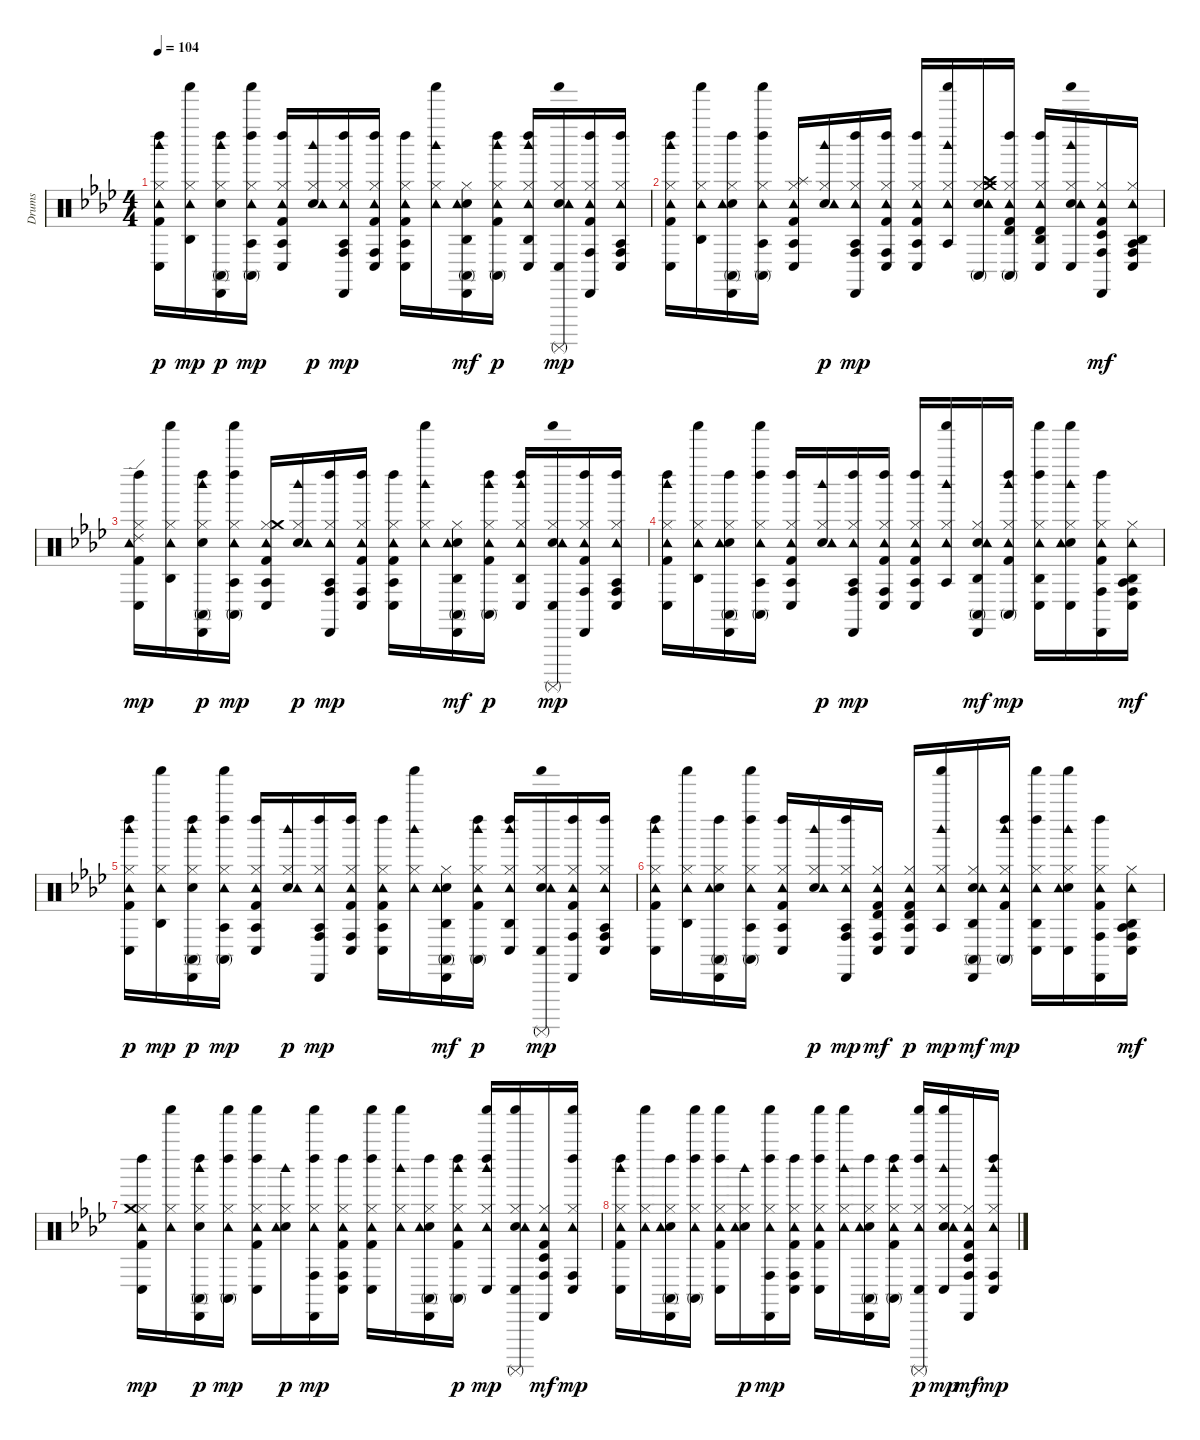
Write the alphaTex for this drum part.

\track ("Drums" "Drums") {instrument percussion}
\staff {score}
\articulation defaults
\ts (4 4)
\tempo 104
\clef neutral
\ks ab
("Kick (hit) 2" "Hi-Hat (closed)" "Tambourine (hit)" "Conga low (hit)" "Left Maraca (hit)" "Woodblock high (hit)").16{dy p} ("Hi-Hat (closed)" "Tambourine (hit)" "Agogo high (hit)" "Shaker (hit)").16{dy mp} ("Hand Clap (hit)" "Hi-Hat (closed)" "Conga high (mute)" "Cabasa (hit)" "Left Maraca (hit)" "Woodblock high (hit)").16{dy p} ("Hi-Hat (closed)" "Tambourine (hit)" "Conga high (mute)" "Agogo tow (hit)" "Left Maraca (hit)" "Shaker (hit)").16{dy mp} ("Kick (hit) 2" "Hi-Hat (closed)" "Tambourine (hit)" "Conga low (hit)" "Agogo tow (hit)" "Left Maraca (hit)").16 ("Hand Clap (hit)" "Hi-Hat (closed)" "Tambourine (hit)" "Woodblock high (hit)").16{dy p} ("Hi-Hat (closed)" "Tambourine (hit)" "Conga high (hit)" "Agogo tow (hit)" "Cabasa (hit)" "Left Maraca (hit)").16{dy mp} ("Kick (hit) 2" "Hi-Hat (closed)" "Tambourine (hit)" "Conga high (hit)" "Conga low (hit)" "Left Maraca (hit)").16 ("Kick (hit) 2" "Hi-Hat (closed)" "Tambourine (hit)" "Conga low (hit)" "Agogo tow (hit)" "Left Maraca (hit)").16 ("Hi-Hat (closed)" "Tambourine (hit)" "Woodblock high (hit)" "Shaker (hit)").16 ("Hand Clap (hit)" "Hi-Hat (closed)" "Tambourine (hit)" "Conga high (mute)" "Agogo high (hit)" "Cabasa (hit)").16{dy mf} ("Kick (hit) 2" "Hi-Hat (closed)" "Tambourine (hit)" "Conga high (mute)" "Left Maraca (hit)" "Woodblock high (hit)").16{dy p} ("Hi-Hat (closed)" "Tambourine (hit)" "Conga low (hit)" "Agogo high (hit)" "Left Maraca (hit)" "Woodblock high (hit)").16 ("Hand Clap (hit)" "Hi-Hat (closed)" "Tambourine (hit)" "Conga low (hit)" "Shaker (hit)" "Surdo (mute)").16{dy mp} ("Kick (hit) 2" "Hi-Hat (closed)" "Tambourine (hit)" "Conga high (hit)" "Cabasa (hit)" "Left Maraca (hit)").16 ("Hi-Hat (closed)" "Tambourine (hit)" "Conga high (hit)" "Conga low (hit)" "Agogo tow (hit)" "Left Maraca (hit)").16 |
("Kick (hit) 2" "Hi-Hat (closed)" "Tambourine (hit)" "Conga low (hit)" "Left Maraca (hit)" "Woodblock high (hit)").16 ("Hi-Hat (closed)" "Tambourine (hit)" "Agogo high (hit)" "Shaker (hit)").16 ("Hand Clap (hit)" "Hi-Hat (closed)" "Tambourine (hit)" "Conga high (mute)" "Cabasa (hit)" "Left Maraca (hit)").16 ("Hi-Hat (closed)" "Tambourine (hit)" "Conga high (mute)" "Agogo tow (hit)" "Left Maraca (hit)" "Shaker (hit)").16 ("Kick (hit) 2" "Hi-Hat (closed)" "Tambourine (hit)" "Splash (hit)" "Conga low (hit)" "Agogo tow (hit)").16 ("Hand Clap (hit)" "Hi-Hat (closed)" "Tambourine (hit)" "Woodblock high (hit)").16{dy p} ("Hi-Hat (closed)" "Tambourine (hit)" "Conga high (hit)" "Agogo tow (hit)" "Cabasa (hit)" "Left Maraca (hit)").16{dy mp} ("Kick (hit) 2" "Hi-Hat (closed)" "Tambourine (hit)" "Conga high (hit)" "Conga low (hit)" "Left Maraca (hit)").16 ("Kick (hit) 2" "Hi-Hat (closed)" "Tambourine (hit)" "Conga low (hit)" "Agogo tow (hit)" "Left Maraca (hit)").16 ("Hi-Hat (closed)" "Tambourine (hit)" "Agogo tow (hit)" "Woodblock high (hit)" "Shaker (hit)").16 ("Hand Clap (hit)" "Hi-Hat (closed)" "Crash high (hit)" "Tambourine (hit)" "Crash medium (hit)" "Conga high (mute)").16 ("Kick (hit) 2" "Hi-Hat (closed)" "Tambourine (hit)" "Conga high (mute)" "Timbale high (hit)" "Left Maraca (hit)").16 ("Hi-Hat (closed)" "Tambourine (hit)" "Conga low (hit)" "Timbale high (hit)" "Agogo high (hit)" "Left Maraca (hit)").16 ("Hand Clap (hit)" "Hi-Hat (closed)" "Tambourine (hit)" "Conga low (hit)" "Woodblock high (hit)" "Shaker (hit)").16 ("Kick (hit) 2" "Hi-Hat (closed)" "Tambourine (hit)" "Conga high (hit)" "Timbale low (hit)" "Cabasa (hit)").16{dy mf} ("Hi-Hat (closed)" "Tambourine (hit)" "Conga high (hit)" "Conga low (hit)" "Agogo high (hit)" "Agogo tow (hit)").16 |
("Kick (hit) 2" "Hi-Hat (closed)" "Tambourine (hit)" "Ride (edge) 2" "Conga low (hit)" "Left Maraca (hit)").16{dy mp} ("Hi-Hat (closed)" "Tambourine (hit)" "Agogo high (hit)" "Shaker (hit)").16 ("Hand Clap (hit)" "Hi-Hat (closed)" "Conga high (mute)" "Cabasa (hit)" "Left Maraca (hit)" "Woodblock high (hit)").16{dy p} ("Hi-Hat (closed)" "Tambourine (hit)" "Conga high (mute)" "Agogo tow (hit)" "Left Maraca (hit)" "Shaker (hit)").16{dy mp} ("Kick (hit) 2" "Hi-Hat (closed)" "Tambourine (hit)" "Crash medium (hit)" "Conga low (hit)" "Agogo tow (hit)").16 ("Hand Clap (hit)" "Hi-Hat (closed)" "Tambourine (hit)" "Woodblock high (hit)").16{dy p} ("Hi-Hat (closed)" "Tambourine (hit)" "Conga high (hit)" "Agogo tow (hit)" "Cabasa (hit)" "Left Maraca (hit)").16{dy mp} ("Kick (hit) 2" "Hi-Hat (closed)" "Tambourine (hit)" "Conga high (hit)" "Conga low (hit)" "Left Maraca (hit)").16 ("Kick (hit) 2" "Hi-Hat (closed)" "Tambourine (hit)" "Conga low (hit)" "Agogo tow (hit)" "Left Maraca (hit)").16 ("Hi-Hat (closed)" "Tambourine (hit)" "Woodblock high (hit)" "Shaker (hit)").16 ("Hand Clap (hit)" "Hi-Hat (closed)" "Tambourine (hit)" "Conga high (mute)" "Agogo high (hit)" "Cabasa (hit)").16{dy mf} ("Kick (hit) 2" "Hi-Hat (closed)" "Tambourine (hit)" "Conga high (mute)" "Left Maraca (hit)" "Woodblock high (hit)").16{dy p} ("Hi-Hat (closed)" "Tambourine (hit)" "Conga low (hit)" "Agogo high (hit)" "Left Maraca (hit)" "Woodblock high (hit)").16 ("Hand Clap (hit)" "Hi-Hat (closed)" "Tambourine (hit)" "Conga low (hit)" "Shaker (hit)" "Surdo (mute)").16{dy mp} ("Kick (hit) 2" "Hi-Hat (closed)" "Tambourine (hit)" "Conga high (hit)" "Cabasa (hit)" "Left Maraca (hit)").16 ("Hi-Hat (closed)" "Tambourine (hit)" "Conga high (hit)" "Conga low (hit)" "Agogo tow (hit)" "Left Maraca (hit)").16 |
("Kick (hit) 2" "Hi-Hat (closed)" "Tambourine (hit)" "Conga low (hit)" "Left Maraca (hit)" "Woodblock high (hit)").16 ("Hi-Hat (closed)" "Tambourine (hit)" "Agogo high (hit)" "Shaker (hit)").16 ("Hand Clap (hit)" "Hi-Hat (closed)" "Tambourine (hit)" "Conga high (mute)" "Cabasa (hit)" "Left Maraca (hit)").16 ("Hi-Hat (closed)" "Tambourine (hit)" "Conga high (mute)" "Agogo tow (hit)" "Left Maraca (hit)" "Shaker (hit)").16 ("Kick (hit) 2" "Hi-Hat (closed)" "Tambourine (hit)" "Conga low (hit)" "Agogo tow (hit)" "Left Maraca (hit)").16 ("Hand Clap (hit)" "Hi-Hat (closed)" "Tambourine (hit)" "Woodblock high (hit)").16{dy p} ("Hi-Hat (closed)" "Tambourine (hit)" "Conga high (hit)" "Agogo tow (hit)" "Cabasa (hit)" "Left Maraca (hit)").16{dy mp} ("Kick (hit) 2" "Hi-Hat (closed)" "Tambourine (hit)" "Conga high (hit)" "Conga low (hit)" "Left Maraca (hit)").16 ("Kick (hit) 2" "Hi-Hat (closed)" "Tambourine (hit)" "Conga low (hit)" "Agogo tow (hit)" "Left Maraca (hit)").16 ("Hi-Hat (closed)" "Tambourine (hit)" "Agogo tow (hit)" "Woodblock high (hit)" "Shaker (hit)").16 ("Hand Clap (hit)" "Hi-Hat (closed)" "Tambourine (hit)" "Conga high (mute)" "Agogo high (hit)" "Cabasa (hit)").16{dy mf} ("Kick (hit) 2" "Hi-Hat (closed)" "Tambourine (hit)" "Conga high (mute)" "Left Maraca (hit)" "Woodblock high (hit)").16{dy mp} ("Hi-Hat (closed)" "Tambourine (hit)" "Conga low (hit)" "Agogo high (hit)" "Left Maraca (hit)" "Shaker (hit)").16 ("Hand Clap (hit)" "Hi-Hat (closed)" "Tambourine (hit)" "Conga low (hit)" "Woodblock high (hit)" "Shaker (hit)").16 ("Kick (hit) 2" "Hi-Hat (closed)" "Tambourine (hit)" "Conga high (hit)" "Cabasa (hit)" "Left Maraca (hit)").16 ("Hi-Hat (closed)" "Tambourine (hit)" "Conga high (hit)" "Conga low (hit)" "Agogo high (hit)" "Agogo tow (hit)").16{dy mf} |
("Kick (hit) 2" "Hi-Hat (closed)" "Tambourine (hit)" "Conga low (hit)" "Left Maraca (hit)" "Woodblock high (hit)").16{dy p} ("Hi-Hat (closed)" "Tambourine (hit)" "Agogo high (hit)" "Shaker (hit)").16{dy mp} ("Hand Clap (hit)" "Hi-Hat (closed)" "Conga high (mute)" "Cabasa (hit)" "Left Maraca (hit)" "Woodblock high (hit)").16{dy p} ("Hi-Hat (closed)" "Tambourine (hit)" "Conga high (mute)" "Agogo tow (hit)" "Left Maraca (hit)" "Shaker (hit)").16{dy mp} ("Kick (hit) 2" "Hi-Hat (closed)" "Tambourine (hit)" "Conga low (hit)" "Agogo tow (hit)" "Left Maraca (hit)").16 ("Hand Clap (hit)" "Hi-Hat (closed)" "Tambourine (hit)" "Woodblock high (hit)").16{dy p} ("Hi-Hat (closed)" "Tambourine (hit)" "Conga high (hit)" "Agogo tow (hit)" "Cabasa (hit)" "Left Maraca (hit)").16{dy mp} ("Kick (hit) 2" "Hi-Hat (closed)" "Tambourine (hit)" "Conga high (hit)" "Conga low (hit)" "Left Maraca (hit)").16 ("Kick (hit) 2" "Hi-Hat (closed)" "Tambourine (hit)" "Conga low (hit)" "Agogo tow (hit)" "Left Maraca (hit)").16 ("Hi-Hat (closed)" "Tambourine (hit)" "Woodblock high (hit)" "Shaker (hit)").16 ("Hand Clap (hit)" "Hi-Hat (closed)" "Tambourine (hit)" "Conga high (mute)" "Agogo high (hit)" "Cabasa (hit)").16{dy mf} ("Kick (hit) 2" "Hi-Hat (closed)" "Tambourine (hit)" "Conga high (mute)" "Left Maraca (hit)" "Woodblock high (hit)").16{dy p} ("Hi-Hat (closed)" "Tambourine (hit)" "Conga low (hit)" "Agogo high (hit)" "Left Maraca (hit)" "Woodblock high (hit)").16 ("Hand Clap (hit)" "Hi-Hat (closed)" "Tambourine (hit)" "Conga low (hit)" "Shaker (hit)" "Surdo (mute)").16{dy mp} ("Kick (hit) 2" "Hi-Hat (closed)" "Tambourine (hit)" "Conga high (hit)" "Cabasa (hit)" "Left Maraca (hit)").16 ("Hi-Hat (closed)" "Tambourine (hit)" "Conga high (hit)" "Conga low (hit)" "Agogo tow (hit)" "Left Maraca (hit)").16 |
("Kick (hit) 2" "Hi-Hat (closed)" "Tambourine (hit)" "Conga low (hit)" "Left Maraca (hit)" "Woodblock high (hit)").16 ("Hi-Hat (closed)" "Tambourine (hit)" "Agogo high (hit)" "Shaker (hit)").16 ("Hand Clap (hit)" "Hi-Hat (closed)" "Tambourine (hit)" "Conga high (mute)" "Cabasa (hit)" "Left Maraca (hit)").16 ("Hi-Hat (closed)" "Tambourine (hit)" "Conga high (mute)" "Agogo tow (hit)" "Left Maraca (hit)" "Shaker (hit)").16 ("Kick (hit) 2" "Hi-Hat (closed)" "Tambourine (hit)" "Conga low (hit)" "Agogo tow (hit)" "Left Maraca (hit)").16 ("Hand Clap (hit)" "Hi-Hat (closed)" "Tambourine (hit)" "Woodblock high (hit)").16{dy p} ("Hi-Hat (closed)" "Tambourine (hit)" "Conga high (hit)" "Agogo tow (hit)" "Cabasa (hit)" "Left Maraca (hit)").16{dy mp} ("Kick (hit) 2" "Hi-Hat (closed)" "Tambourine (hit)" "Conga high (hit)" "Conga low (hit)" "Timbale high (hit)").16{dy mf} ("Kick (hit) 2" "Hi-Hat (closed)" "Tambourine (hit)" "Conga low (hit)" "Timbale high (hit)" "Agogo tow (hit)").16{dy p} ("Hi-Hat (closed)" "Tambourine (hit)" "Agogo tow (hit)" "Woodblock high (hit)" "Shaker (hit)").16{dy mp} ("Hand Clap (hit)" "Hi-Hat (closed)" "Tambourine (hit)" "Conga high (mute)" "Agogo high (hit)" "Cabasa (hit)").16{dy mf} ("Kick (hit) 2" "Hi-Hat (closed)" "Tambourine (hit)" "Conga high (mute)" "Left Maraca (hit)" "Woodblock high (hit)").16{dy mp} ("Hi-Hat (closed)" "Tambourine (hit)" "Conga low (hit)" "Agogo high (hit)" "Left Maraca (hit)" "Shaker (hit)").16 ("Hand Clap (hit)" "Hi-Hat (closed)" "Tambourine (hit)" "Conga low (hit)" "Woodblock high (hit)" "Shaker (hit)").16 ("Kick (hit) 2" "Hi-Hat (closed)" "Tambourine (hit)" "Conga high (hit)" "Cabasa (hit)" "Left Maraca (hit)").16 ("Hi-Hat (closed)" "Tambourine (hit)" "Conga high (hit)" "Conga low (hit)" "Agogo high (hit)" "Agogo tow (hit)").16{dy mf} |
("Kick (hit) 2" "Hi-Hat (closed)" "Tambourine (hit)" "Crash medium (hit)" "Conga low (hit)" "Left Maraca (hit)").16{dy mp} ("Hi-Hat (closed)" "Tambourine (hit)" "Shaker (hit)").16 ("Hand Clap (hit)" "Hi-Hat (closed)" "Conga high (mute)" "Cabasa (hit)" "Left Maraca (hit)" "Woodblock high (hit)").16{dy p} ("Hi-Hat (closed)" "Tambourine (hit)" "Conga high (mute)" "Left Maraca (hit)" "Shaker (hit)").16{dy mp} ("Kick (hit) 2" "Hi-Hat (closed)" "Tambourine (hit)" "Conga low (hit)" "Left Maraca (hit)" "Shaker (hit)").16 ("Hand Clap (hit)" "Hi-Hat (closed)" "Tambourine (hit)" "Woodblock high (hit)").16{dy p} ("Hi-Hat (closed)" "Tambourine (hit)" "Conga high (hit)" "Cabasa (hit)" "Left Maraca (hit)" "Shaker (hit)").16{dy mp} ("Kick (hit) 2" "Hi-Hat (closed)" "Tambourine (hit)" "Conga high (hit)" "Conga low (hit)" "Left Maraca (hit)").16 ("Kick (hit) 2" "Hi-Hat (closed)" "Tambourine (hit)" "Conga low (hit)" "Left Maraca (hit)" "Shaker (hit)").16 ("Hi-Hat (closed)" "Tambourine (hit)" "Woodblock high (hit)" "Shaker (hit)").16 ("Hand Clap (hit)" "Hi-Hat (closed)" "Tambourine (hit)" "Conga high (mute)" "Cabasa (hit)" "Left Maraca (hit)").16 ("Kick (hit) 2" "Hi-Hat (closed)" "Tambourine (hit)" "Conga high (mute)" "Left Maraca (hit)" "Woodblock high (hit)").16{dy p} ("Hi-Hat (closed)" "Tambourine (hit)" "Conga low (hit)" "Left Maraca (hit)" "Woodblock high (hit)" "Shaker (hit)").16{dy mp} ("Hand Clap (hit)" "Hi-Hat (closed)" "Tambourine (hit)" "Conga low (hit)" "Shaker (hit)" "Surdo (mute)").16 ("Kick (hit) 2" "Hi-Hat (closed)" "Tambourine (hit)" "Conga high (hit)" "Timbale low (hit)" "Cabasa (hit)").16{dy mf} ("Hi-Hat (closed)" "Tambourine (hit)" "Conga high (hit)" "Conga low (hit)" "Left Maraca (hit)" "Shaker (hit)").16{dy mp} |
("Kick (hit) 2" "Hi-Hat (closed)" "Tambourine (hit)" "Conga low (hit)" "Left Maraca (hit)" "Woodblock high (hit)").16 ("Hi-Hat (closed)" "Tambourine (hit)" "Shaker (hit)").16 ("Hand Clap (hit)" "Hi-Hat (closed)" "Tambourine (hit)" "Conga high (mute)" "Cabasa (hit)" "Left Maraca (hit)").16 ("Hi-Hat (closed)" "Tambourine (hit)" "Conga high (mute)" "Left Maraca (hit)" "Shaker (hit)").16 ("Kick (hit) 2" "Hi-Hat (closed)" "Tambourine (hit)" "Conga low (hit)" "Left Maraca (hit)" "Shaker (hit)").16 ("Hand Clap (hit)" "Hi-Hat (closed)" "Tambourine (hit)" "Woodblock high (hit)").16{dy p} ("Hi-Hat (closed)" "Tambourine (hit)" "Conga high (hit)" "Cabasa (hit)" "Left Maraca (hit)" "Shaker (hit)").16{dy mp} ("Kick (hit) 2" "Hi-Hat (closed)" "Tambourine (hit)" "Conga high (hit)" "Conga low (hit)" "Left Maraca (hit)").16 ("Kick (hit) 2" "Hi-Hat (closed)" "Tambourine (hit)" "Conga low (hit)" "Left Maraca (hit)" "Shaker (hit)").16 ("Hi-Hat (closed)" "Tambourine (hit)" "Woodblock high (hit)" "Shaker (hit)").16 ("Hand Clap (hit)" "Hi-Hat (closed)" "Tambourine (hit)" "Conga high (mute)" "Cabasa (hit)" "Left Maraca (hit)").16 ("Kick (hit) 2" "Hi-Hat (closed)" "Tambourine (hit)" "Conga high (mute)" "Left Maraca (hit)" "Woodblock high (hit)").16 ("Hi-Hat (closed)" "Tambourine (hit)" "Conga low (hit)" "Left Maraca (hit)" "Shaker (hit)" "Surdo (mute)").16{dy p} ("Hand Clap (hit)" "Hi-Hat (closed)" "Tambourine (hit)" "Conga low (hit)" "Woodblock high (hit)" "Shaker (hit)").16{dy mp} ("Kick (hit) 2" "Hi-Hat (closed)" "Tambourine (hit)" "Conga high (hit)" "Timbale low (hit)" "Cabasa (hit)").16{dy mf} ("Hi-Hat (closed)" "Tambourine (hit)" "Conga high (hit)" "Conga low (hit)" "Left Maraca (hit)" "Woodblock high (hit)").16{dy mp}
